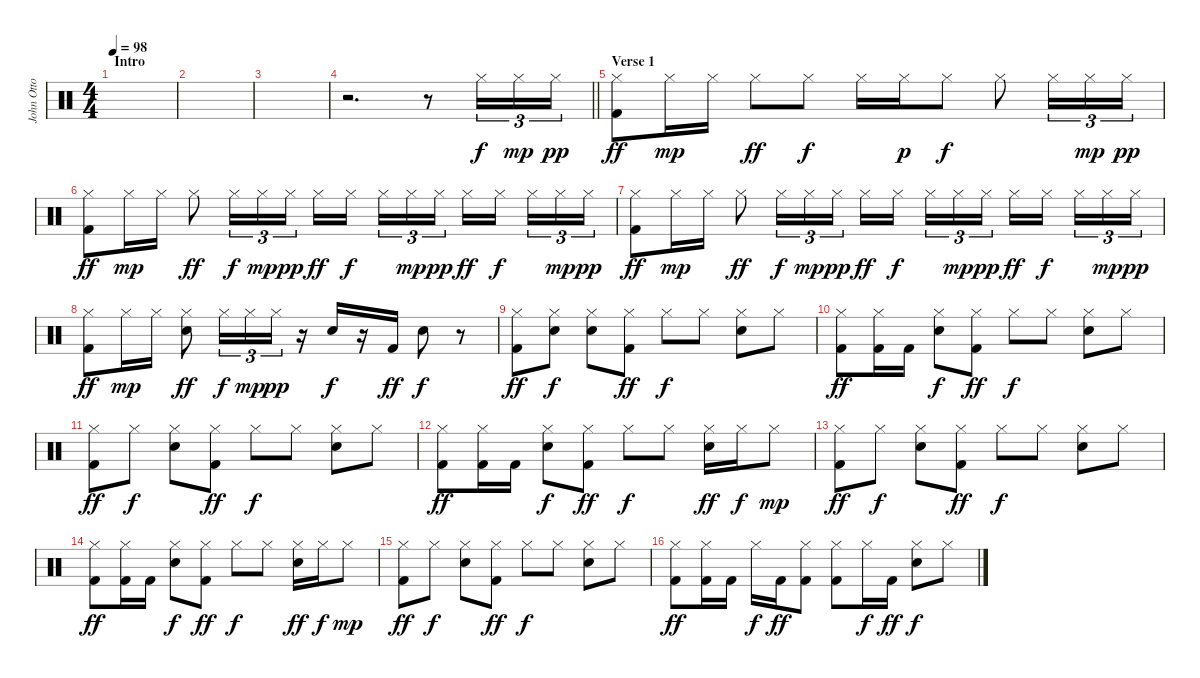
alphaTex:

\track ("John Otto (Drums)" "John Otto ") {instrument percussion}
\staff {score}
\articulation defaults
\ts (4 4)
\section ("" "Intro")
\tempo 98
\clef neutral
\ks c
|
|
|
\barLineRight lightlight
r.2{d} r.8 "Hi-Hat (closed)".16{tu (3 2)} "Hi-Hat (closed)".16{tu (3 2) dy mp} "Hi-Hat (closed)".16{tu (3 2) dy pp} |
\section ("" "Verse 1")
("Hi-Hat (closed)" "Kick (hit) 2").8{dy ff} "Hi-Hat (closed)".16{dy mp} "Hi-Hat (closed)".16 "Hi-Hat (closed)".8{dy ff} "Hi-Hat (closed)".8{dy f} "Hi-Hat (closed)".16 "Hi-Hat (closed)".16{dy p} "Hi-Hat (closed)".8{dy f} "Hi-Hat (closed)".8 "Hi-Hat (closed)".16{tu (3 2)} "Hi-Hat (closed)".16{tu (3 2) dy mp} "Hi-Hat (closed)".16{tu (3 2) dy pp} |
("Hi-Hat (closed)" "Kick (hit) 2").8{dy ff} "Hi-Hat (closed)".16{dy mp} "Hi-Hat (closed)".16 "Hi-Hat (closed)".8{dy ff} "Hi-Hat (closed)".16{tu (3 2) dy f} "Hi-Hat (closed)".16{tu (3 2) dy mp} "Hi-Hat (closed)".16{tu (3 2) dy pp} "Hi-Hat (closed)".16{dy ff} "Hi-Hat (closed)".16{dy f beam splitsecondary} "Hi-Hat (closed)".16{tu (3 2)} "Hi-Hat (closed)".16{tu (3 2) dy mp} "Hi-Hat (closed)".16{tu (3 2) dy pp} "Hi-Hat (closed)".16{dy ff} "Hi-Hat (closed)".16{dy f beam splitsecondary} "Hi-Hat (closed)".16{tu (3 2)} "Hi-Hat (closed)".16{tu (3 2) dy mp} "Hi-Hat (closed)".16{tu (3 2) dy pp} |
("Hi-Hat (closed)" "Kick (hit) 2").8{dy ff} "Hi-Hat (closed)".16{dy mp} "Hi-Hat (closed)".16 "Hi-Hat (closed)".8{dy ff} "Hi-Hat (closed)".16{tu (3 2) dy f} "Hi-Hat (closed)".16{tu (3 2) dy mp} "Hi-Hat (closed)".16{tu (3 2) dy pp} "Hi-Hat (closed)".16{dy ff} "Hi-Hat (closed)".16{dy f beam splitsecondary} "Hi-Hat (closed)".16{tu (3 2)} "Hi-Hat (closed)".16{tu (3 2) dy mp} "Hi-Hat (closed)".16{tu (3 2) dy pp} "Hi-Hat (closed)".16{dy ff} "Hi-Hat (closed)".16{dy f beam splitsecondary} "Hi-Hat (closed)".16{tu (3 2)} "Hi-Hat (closed)".16{tu (3 2) dy mp} "Hi-Hat (closed)".16{tu (3 2) dy pp} |
("Hi-Hat (closed)" "Kick (hit) 2").8{dy ff} "Hi-Hat (closed)".16{dy mp} "Hi-Hat (closed)".16 ("Hi-Hat (closed)" "Hand Clap (hit)").8{dy ff} "Hi-Hat (closed)".16{tu (3 2) dy f} "Hi-Hat (closed)".16{tu (3 2) dy mp} "Hi-Hat (closed)".16{tu (3 2) dy pp} r.16 "Hand Clap (hit)".16{dy f} r.16 "Kick (hit) 2".16{dy ff} "Hand Clap (hit)".8{dy f} r.8 |
("Hi-Hat (closed)" "Kick (hit) 2").8{dy ff} ("Hi-Hat (closed)" "Hand Clap (hit)").8{dy f} ("Hi-Hat (closed)" "Snare (hit) 2").8 ("Hi-Hat (closed)" "Kick (hit) 2").8{dy ff} "Hi-Hat (closed)".8{dy f} "Hi-Hat (closed)".8 ("Hi-Hat (closed)" "Snare (hit) 2").8 "Hi-Hat (closed)".8 |
("Hi-Hat (closed)" "Kick (hit) 2").8{dy ff} ("Hi-Hat (closed)" "Kick (hit) 2").16 "Kick (hit) 2".16 ("Hi-Hat (closed)" "Snare (hit) 2").8{dy f} ("Hi-Hat (closed)" "Kick (hit) 2").8{dy ff} "Hi-Hat (closed)".8{dy f} "Hi-Hat (closed)".8 ("Hi-Hat (closed)" "Snare (hit) 2").8 "Hi-Hat (closed)".8 |
("Hi-Hat (closed)" "Kick (hit) 2").8{dy ff} "Hi-Hat (closed)".8{dy f} ("Hi-Hat (closed)" "Snare (hit) 2").8 ("Hi-Hat (closed)" "Kick (hit) 2").8{dy ff} "Hi-Hat (closed)".8{dy f} "Hi-Hat (closed)".8 ("Hi-Hat (closed)" "Snare (hit) 2").8 "Hi-Hat (closed)".8 |
("Hi-Hat (closed)" "Kick (hit) 2").8{dy ff} ("Hi-Hat (closed)" "Kick (hit) 2").16 "Kick (hit) 2".16 ("Hi-Hat (closed)" "Snare (hit) 2").8{dy f} ("Hi-Hat (closed)" "Kick (hit) 2").8{dy ff} "Hi-Hat (closed)".8{dy f} "Hi-Hat (closed)".8 ("Hi-Hat (closed)" "Snare (hit) 2").16{dy ff} "Hi-Hat (closed)".16{dy f} "Hi-Hat (closed)".8{dy mp} |
("Hi-Hat (closed)" "Kick (hit) 2").8{dy ff} "Hi-Hat (closed)".8{dy f} ("Hi-Hat (closed)" "Snare (hit) 2").8 ("Hi-Hat (closed)" "Kick (hit) 2").8{dy ff} "Hi-Hat (closed)".8{dy f} "Hi-Hat (closed)".8 ("Hi-Hat (closed)" "Snare (hit) 2").8 "Hi-Hat (closed)".8 |
("Hi-Hat (closed)" "Kick (hit) 2").8{dy ff} ("Hi-Hat (closed)" "Kick (hit) 2").16 "Kick (hit) 2".16 ("Hi-Hat (closed)" "Snare (hit) 2").8{dy f} ("Hi-Hat (closed)" "Kick (hit) 2").8{dy ff} "Hi-Hat (closed)".8{dy f} "Hi-Hat (closed)".8 ("Hi-Hat (closed)" "Snare (hit) 2").16{dy ff} "Hi-Hat (closed)".16{dy f} "Hi-Hat (closed)".8{dy mp} |
("Hi-Hat (closed)" "Kick (hit) 2").8{dy ff} "Hi-Hat (closed)".8{dy f} ("Hi-Hat (closed)" "Snare (hit) 2").8 ("Hi-Hat (closed)" "Kick (hit) 2").8{dy ff} "Hi-Hat (closed)".8{dy f} "Hi-Hat (closed)".8 ("Hi-Hat (closed)" "Snare (hit) 2").8 "Hi-Hat (closed)".8 |
("Hi-Hat (closed)" "Kick (hit) 2").8{dy ff} ("Hi-Hat (closed)" "Kick (hit) 2").16 "Kick (hit) 2".16 "Hi-Hat (closed)".16{dy f} "Kick (hit) 2".16{dy ff} ("Hi-Hat (closed)" "Kick (hit) 2").8 ("Hi-Hat (closed)" "Kick (hit) 2").8 "Hi-Hat (closed)".16{dy f} "Kick (hit) 2".16{dy ff} ("Hi-Hat (closed)" "Snare (hit) 2").8{dy f} "Hi-Hat (closed)".8
